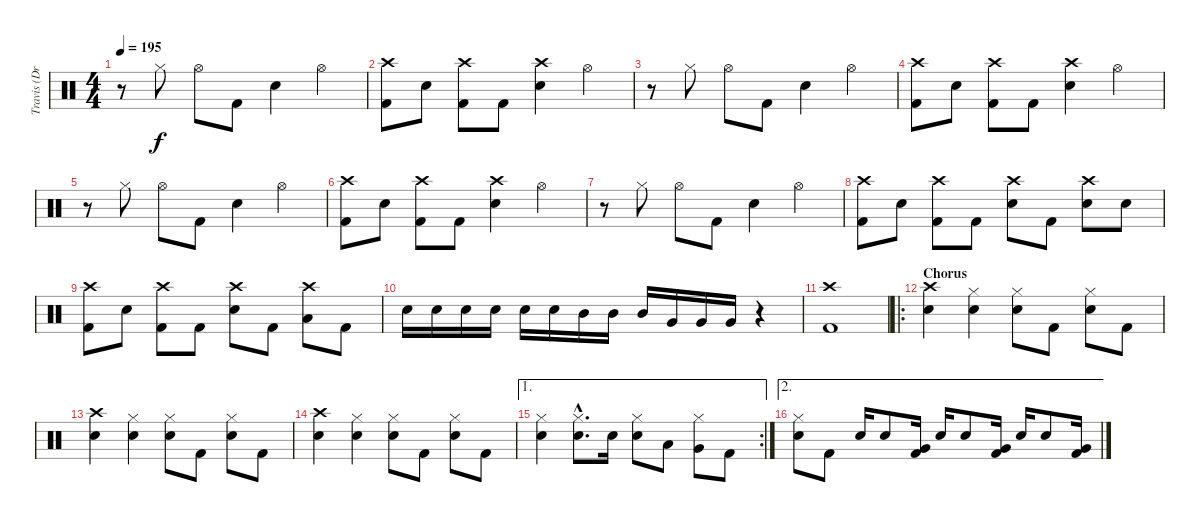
\track ("Travis (Drums)" "Travis (Dr") {instrument percussion}
\staff {score}
\articulation defaults
\ts (4 4)
\tempo 195
\clef neutral
\ks c
r.8{dy f} "Hi-Hat (closed)".8 "Hi-Hat (open)".8 "Kick (hit) 2".8 "Electric Snare (hit)".4 "Hi-Hat (open)".4 |
("Crash high (hit)" "Kick (hit) 2").8 "Electric Snare (hit)".8 ("Crash high (hit)" "Kick (hit) 2").8 "Kick (hit) 2".8 ("Crash high (hit)" "Electric Snare (hit)").4 "Hi-Hat (open)".4 |
r.8 "Hi-Hat (closed)".8 "Hi-Hat (open)".8 "Kick (hit) 2".8 "Electric Snare (hit)".4 "Hi-Hat (open)".4 |
("Crash high (hit)" "Kick (hit) 2").8 "Electric Snare (hit)".8 ("Crash high (hit)" "Kick (hit) 2").8 "Kick (hit) 2".8 ("Crash high (hit)" "Electric Snare (hit)").4 "Hi-Hat (open)".4 |
r.8 "Hi-Hat (closed)".8 "Hi-Hat (open)".8 "Kick (hit) 2".8 "Electric Snare (hit)".4 "Hi-Hat (open)".4 |
("Crash high (hit)" "Kick (hit) 2").8 "Electric Snare (hit)".8 ("Crash high (hit)" "Kick (hit) 2").8 "Kick (hit) 2".8 ("Crash high (hit)" "Electric Snare (hit)").4 "Hi-Hat (open)".4 |
r.8 "Hi-Hat (closed)".8 "Hi-Hat (open)".8 "Kick (hit) 2".8 "Electric Snare (hit)".4 "Hi-Hat (open)".4 |
("Crash high (hit)" "Kick (hit) 2").8 "Electric Snare (hit)".8 ("Crash high (hit)" "Kick (hit) 2").8 "Kick (hit) 2".8 ("Crash high (hit)" "Electric Snare (hit)").8 "Kick (hit) 2".8 ("Crash high (hit)" "Electric Snare (hit)").8 "Electric Snare (hit)".8 |
("Crash high (hit)" "Kick (hit) 2").8 "Electric Snare (hit)".8 ("Crash high (hit)" "Kick (hit) 2").8 "Kick (hit) 2".8 ("Crash high (hit)" "Electric Snare (hit)").8 "Kick (hit) 2".8 ("Low Tom (hit)" "Crash high (hit)").8 "Kick (hit) 2".8 |
"Electric Snare (hit)".16 "Electric Snare (hit)".16 "Electric Snare (hit)".16 "Electric Snare (hit)".16 "Electric Snare (hit)".16 "Electric Snare (hit)".16 "Mid Tom (hit)".16 "Mid Tom (hit)".16 "Mid Tom (hit)".16 "Very Low Tom (hit)".16 "Very Low Tom (hit)".16 "Very Low Tom (hit)".16 r.4 |
("Crash high (hit)" "Kick (hit) 2").1 |
\ro
\section ("" "Chorus")
("Crash high (hit)" "Electric Snare (hit)").4 ("Hi-Hat (closed)" "Electric Snare (hit)").4 ("Hi-Hat (closed)" "Electric Snare (hit)").8 "Kick (hit) 2".8 ("Hi-Hat (closed)" "Electric Snare (hit)").8 "Kick (hit) 2".8 |
("Crash high (hit)" "Electric Snare (hit)").4 ("Hi-Hat (closed)" "Electric Snare (hit)").4 ("Hi-Hat (closed)" "Electric Snare (hit)").8 "Kick (hit) 2".8 ("Hi-Hat (closed)" "Electric Snare (hit)").8 "Kick (hit) 2".8 |
("Crash high (hit)" "Electric Snare (hit)").4 ("Hi-Hat (closed)" "Electric Snare (hit)").4 ("Hi-Hat (closed)" "Electric Snare (hit)").8 "Kick (hit) 2".8 ("Hi-Hat (closed)" "Electric Snare (hit)").8 "Kick (hit) 2".8 |
\ae 1
\rc 2
("Hi-Hat (closed)" "Electric Snare (hit)").4 ("Hi-Hat (closed)"{hac} "Electric Snare (hit)"{hac}).8{d} "Electric Snare (hit)".16 ("Hi-Hat (closed)" "Electric Snare (hit)").8 "Low Tom (hit)".8 ("Very Low Tom (hit)" "Hi-Hat (closed)").8 "Kick (hit) 2".8 |
\ae 2
("Hi-Hat (closed)" "Electric Snare (hit)").8 "Kick (hit) 2".8 "Electric Snare (hit)".16 "Electric Snare (hit)".8 ("Very Low Tom (hit)" "Kick (hit) 2").16 "Electric Snare (hit)".16 "Electric Snare (hit)".8 ("Very Low Tom (hit)" "Kick (hit) 2").16 "Electric Snare (hit)".16 "Electric Snare (hit)".8 ("Very Low Tom (hit)" "Kick (hit) 2").16
